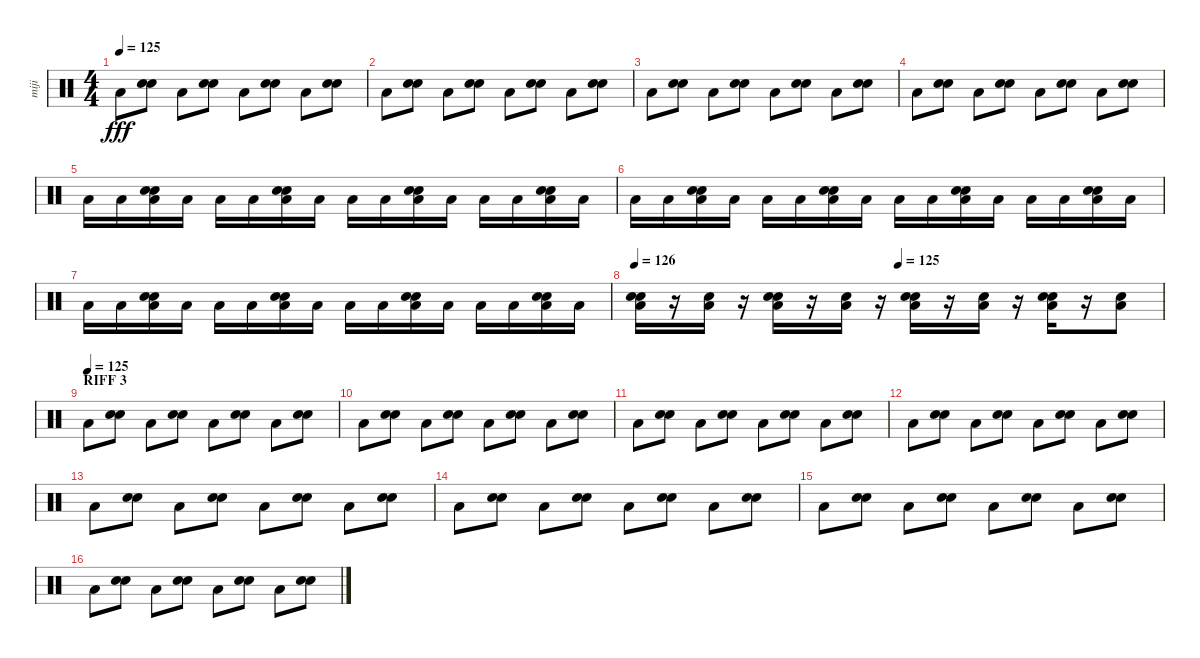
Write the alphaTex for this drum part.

\track ("miji" "miji") {instrument percussion}
\staff {score}
\articulation defaults
\ts (4 4)
\tempo 125
\clef neutral
\ks c "Low Floor Tom (hit)".8{dy fff}
("Electric Snare (hit)" "Electric Snare (hit)").8 "Low Floor Tom (hit)".8 ("Electric Snare (hit)" "Electric Snare (hit)").8 "Low Floor Tom (hit)".8 ("Electric Snare (hit)" "Electric Snare (hit)").8 "Low Floor Tom (hit)".8 ("Electric Snare (hit)" "Electric Snare (hit)").8 |
"Low Floor Tom (hit)".8 ("Electric Snare (hit)" "Electric Snare (hit)").8 "Low Floor Tom (hit)".8 ("Electric Snare (hit)" "Electric Snare (hit)").8 "Low Floor Tom (hit)".8 ("Electric Snare (hit)" "Electric Snare (hit)").8 "Low Floor Tom (hit)".8 ("Electric Snare (hit)" "Electric Snare (hit)").8 |
"Low Floor Tom (hit)".8 ("Electric Snare (hit)" "Electric Snare (hit)").8 "Low Floor Tom (hit)".8 ("Electric Snare (hit)" "Electric Snare (hit)").8 "Low Floor Tom (hit)".8 ("Electric Snare (hit)" "Electric Snare (hit)").8 "Low Floor Tom (hit)".8 ("Electric Snare (hit)" "Electric Snare (hit)").8 |
"Low Floor Tom (hit)".8 ("Electric Snare (hit)" "Electric Snare (hit)").8 "Low Floor Tom (hit)".8 ("Electric Snare (hit)" "Electric Snare (hit)").8 "Low Floor Tom (hit)".8 ("Electric Snare (hit)" "Electric Snare (hit)").8 "Low Floor Tom (hit)".8 ("Electric Snare (hit)" "Electric Snare (hit)").8 |
"Low Floor Tom (hit)".16 "Low Floor Tom (hit)".16 ("Low Floor Tom (hit)" "Electric Snare (hit)" "Electric Snare (hit)").16 "Low Floor Tom (hit)".16 "Low Floor Tom (hit)".16 "Low Floor Tom (hit)".16 ("Low Floor Tom (hit)" "Electric Snare (hit)" "Electric Snare (hit)").16 "Low Floor Tom (hit)".16 "Low Floor Tom (hit)".16 "Low Floor Tom (hit)".16 ("Low Floor Tom (hit)" "Electric Snare (hit)" "Electric Snare (hit)").16 "Low Floor Tom (hit)".16 "Low Floor Tom (hit)".16 "Low Floor Tom (hit)".16 ("Low Floor Tom (hit)" "Electric Snare (hit)" "Electric Snare (hit)").16 "Low Floor Tom (hit)".16 |
"Low Floor Tom (hit)".16 "Low Floor Tom (hit)".16 ("Low Floor Tom (hit)" "Electric Snare (hit)" "Electric Snare (hit)").16 "Low Floor Tom (hit)".16 "Low Floor Tom (hit)".16 "Low Floor Tom (hit)".16 ("Low Floor Tom (hit)" "Electric Snare (hit)" "Electric Snare (hit)").16 "Low Floor Tom (hit)".16 "Low Floor Tom (hit)".16 "Low Floor Tom (hit)".16 ("Low Floor Tom (hit)" "Electric Snare (hit)" "Electric Snare (hit)").16 "Low Floor Tom (hit)".16 "Low Floor Tom (hit)".16 "Low Floor Tom (hit)".16 ("Low Floor Tom (hit)" "Electric Snare (hit)" "Electric Snare (hit)").16 "Low Floor Tom (hit)".16 |
"Low Floor Tom (hit)".16 "Low Floor Tom (hit)".16 ("Low Floor Tom (hit)" "Electric Snare (hit)" "Electric Snare (hit)").16 "Low Floor Tom (hit)".16 "Low Floor Tom (hit)".16 "Low Floor Tom (hit)".16 ("Low Floor Tom (hit)" "Electric Snare (hit)" "Electric Snare (hit)").16 "Low Floor Tom (hit)".16 "Low Floor Tom (hit)".16 "Low Floor Tom (hit)".16 ("Low Floor Tom (hit)" "Electric Snare (hit)" "Electric Snare (hit)").16 "Low Floor Tom (hit)".16 "Low Floor Tom (hit)".16 "Low Floor Tom (hit)".16 ("Low Floor Tom (hit)" "Electric Snare (hit)" "Electric Snare (hit)").16 "Low Floor Tom (hit)".16 |
\tempo 126
\tempo (125 0.5)
("Low Floor Tom (hit)" "Electric Snare (hit)" "Electric Snare (hit)").16 r.16 ("Low Floor Tom (hit)" "Electric Snare (hit)").16 r.16 ("Low Floor Tom (hit)" "Electric Snare (hit)" "Electric Snare (hit)").16 r.16 ("Low Floor Tom (hit)" "Electric Snare (hit)").16 r.16 ("Low Floor Tom (hit)" "Electric Snare (hit)" "Electric Snare (hit)").16 r.16 ("Low Floor Tom (hit)" "Electric Snare (hit)").16 r.16 ("Low Floor Tom (hit)" "Electric Snare (hit)" "Electric Snare (hit)").16 r.16 ("Low Floor Tom (hit)" "Electric Snare (hit)").8 |
\section ("" "RIFF 3")
\tempo (125)
"Low Floor Tom (hit)".8 ("Electric Snare (hit)" "Electric Snare (hit)").8 "Low Floor Tom (hit)".8 ("Electric Snare (hit)" "Electric Snare (hit)").8 "Low Floor Tom (hit)".8 ("Electric Snare (hit)" "Electric Snare (hit)").8 "Low Floor Tom (hit)".8 ("Electric Snare (hit)" "Electric Snare (hit)").8 |
"Low Floor Tom (hit)".8 ("Electric Snare (hit)" "Electric Snare (hit)").8 "Low Floor Tom (hit)".8 ("Electric Snare (hit)" "Electric Snare (hit)").8 "Low Floor Tom (hit)".8 ("Electric Snare (hit)" "Electric Snare (hit)").8 "Low Floor Tom (hit)".8 ("Electric Snare (hit)" "Electric Snare (hit)").8 |
"Low Floor Tom (hit)".8 ("Electric Snare (hit)" "Electric Snare (hit)").8 "Low Floor Tom (hit)".8 ("Electric Snare (hit)" "Electric Snare (hit)").8 "Low Floor Tom (hit)".8 ("Electric Snare (hit)" "Electric Snare (hit)").8 "Low Floor Tom (hit)".8 ("Electric Snare (hit)" "Electric Snare (hit)").8 |
"Low Floor Tom (hit)".8 ("Electric Snare (hit)" "Electric Snare (hit)").8 "Low Floor Tom (hit)".8 ("Electric Snare (hit)" "Electric Snare (hit)").8 "Low Floor Tom (hit)".8 ("Electric Snare (hit)" "Electric Snare (hit)").8 "Low Floor Tom (hit)".8 ("Electric Snare (hit)" "Electric Snare (hit)").8 |
"Low Floor Tom (hit)".8 ("Electric Snare (hit)" "Electric Snare (hit)").8 "Low Floor Tom (hit)".8 ("Electric Snare (hit)" "Electric Snare (hit)").8 "Low Floor Tom (hit)".8 ("Electric Snare (hit)" "Electric Snare (hit)").8 "Low Floor Tom (hit)".8 ("Electric Snare (hit)" "Electric Snare (hit)").8 |
"Low Floor Tom (hit)".8 ("Electric Snare (hit)" "Electric Snare (hit)").8 "Low Floor Tom (hit)".8 ("Electric Snare (hit)" "Electric Snare (hit)").8 "Low Floor Tom (hit)".8 ("Electric Snare (hit)" "Electric Snare (hit)").8 "Low Floor Tom (hit)".8 ("Electric Snare (hit)" "Electric Snare (hit)").8 |
"Low Floor Tom (hit)".8 ("Electric Snare (hit)" "Electric Snare (hit)").8 "Low Floor Tom (hit)".8 ("Electric Snare (hit)" "Electric Snare (hit)").8 "Low Floor Tom (hit)".8 ("Electric Snare (hit)" "Electric Snare (hit)").8 "Low Floor Tom (hit)".8 ("Electric Snare (hit)" "Electric Snare (hit)").8 |
"Low Floor Tom (hit)".8 ("Electric Snare (hit)" "Electric Snare (hit)").8 "Low Floor Tom (hit)".8 ("Electric Snare (hit)" "Electric Snare (hit)").8 "Low Floor Tom (hit)".8 ("Electric Snare (hit)" "Electric Snare (hit)").8 "Low Floor Tom (hit)".8 ("Electric Snare (hit)" "Electric Snare (hit)").8
